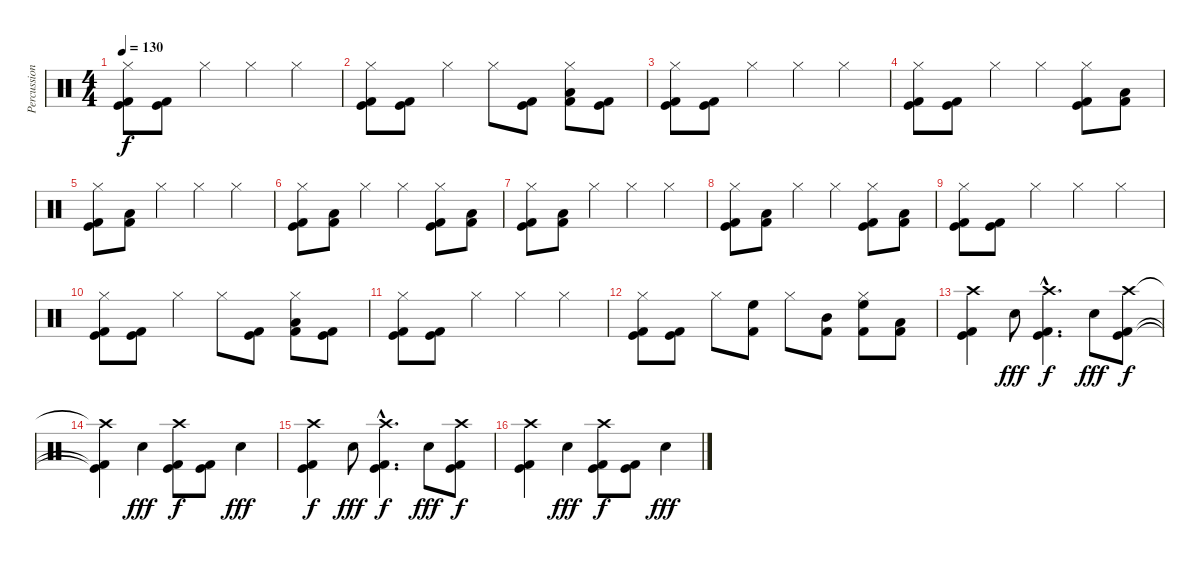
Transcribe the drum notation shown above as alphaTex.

\track ("Percussion" "Percussion") {instrument percussion}
\staff {score}
\articulation defaults
\ts (4 4)
\tempo 130
\clef neutral
\ks c
("Hi-Hat (closed)" "Kick (hit)" "Kick (hit) 2").8{dy f} ("Kick (hit) 2" "Kick (hit)").8 "Hi-Hat (closed)".4 "Hi-Hat (closed)".4 "Hi-Hat (closed)".4 |
("Hi-Hat (closed)" "Kick (hit)" "Kick (hit) 2").8 ("Kick (hit)" "Kick (hit) 2").8 "Hi-Hat (closed)".4 "Hi-Hat (closed)".8 ("Kick (hit)" "Kick (hit) 2").8 ("Hi-Hat (closed)" "Low Tom (hit)" "Kick (hit) 2").8 ("Kick (hit)" "Kick (hit) 2").8 |
("Hi-Hat (closed)" "Kick (hit)" "Kick (hit) 2").8 ("Kick (hit) 2" "Kick (hit)").8 "Hi-Hat (closed)".4 "Hi-Hat (closed)".4 "Hi-Hat (closed)".4 |
("Hi-Hat (closed)" "Kick (hit)" "Kick (hit) 2").8 ("Kick (hit)" "Kick (hit) 2").8 "Hi-Hat (closed)".4 "Hi-Hat (closed)".4 ("Hi-Hat (closed)" "Kick (hit)" "Kick (hit) 2").8 ("Low Tom (hit)" "Kick (hit) 2").8 |
("Hi-Hat (closed)" "Kick (hit)" "Kick (hit) 2").8 ("Low Tom (hit)" "Kick (hit) 2").8 "Hi-Hat (closed)".4 "Hi-Hat (closed)".4 "Hi-Hat (closed)".4 |
("Hi-Hat (closed)" "Kick (hit)" "Kick (hit) 2").8 ("Low Tom (hit)" "Kick (hit) 2").8 "Hi-Hat (closed)".4 "Hi-Hat (closed)".4 ("Hi-Hat (closed)" "Kick (hit)" "Kick (hit) 2").8 ("Low Tom (hit)" "Kick (hit) 2").8 |
("Hi-Hat (closed)" "Kick (hit)" "Kick (hit) 2").8 ("Low Tom (hit)" "Kick (hit) 2").8 "Hi-Hat (closed)".4 "Hi-Hat (closed)".4 "Hi-Hat (closed)".4 |
("Hi-Hat (closed)" "Kick (hit)" "Kick (hit) 2").8 ("Low Tom (hit)" "Kick (hit) 2").8 "Hi-Hat (closed)".4 "Hi-Hat (closed)".4 ("Hi-Hat (closed)" "Kick (hit)" "Kick (hit) 2").8 ("Low Tom (hit)" "Kick (hit) 2").8 |
("Hi-Hat (closed)" "Kick (hit)" "Kick (hit) 2").8 ("Kick (hit) 2" "Kick (hit)").8 "Hi-Hat (closed)".4 "Hi-Hat (closed)".4 "Hi-Hat (closed)".4 |
("Hi-Hat (closed)" "Kick (hit)" "Kick (hit) 2").8 ("Kick (hit)" "Kick (hit) 2").8 "Hi-Hat (closed)".4 "Hi-Hat (closed)".8 ("Kick (hit)" "Kick (hit) 2").8 ("Hi-Hat (closed)" "Low Tom (hit)" "Kick (hit) 2").8 ("Kick (hit)" "Kick (hit) 2").8 |
("Hi-Hat (closed)" "Kick (hit)" "Kick (hit) 2").8 ("Kick (hit) 2" "Kick (hit)").8 "Hi-Hat (closed)".4 "Hi-Hat (closed)".4 "Hi-Hat (closed)".4 |
("Hi-Hat (closed)" "Kick (hit)" "Kick (hit) 2").8 ("Kick (hit)" "Kick (hit) 2").8 "Hi-Hat (closed)".8 ("High Floor Tom (hit)" "Kick (hit) 2").8 "Hi-Hat (closed)".8 ("Mid Tom (hit)" "Kick (hit) 2").8 ("Hi-Hat (closed)" "High Floor Tom (hit)" "Kick (hit) 2").8 ("Low Tom (hit)" "Kick (hit) 2").8 |
("Crash high (hit)" "Kick (hit)" "Kick (hit) 2").4 "Snare (hit) 2".8{dy fff} ("Crash high (hit)"{hac} "Kick (hit)"{hac} "Kick (hit) 2"{hac}).4{d dy f} "Snare (hit) 2".8{dy fff} ("Crash high (hit)" "Kick (hit)" "Kick (hit) 2").8{dy f} |
("Crash high (hit)"{t} "Kick (hit)"{t} "Kick (hit) 2"{t}).4 "Snare (hit) 2".4{dy fff} ("Crash high (hit)" "Kick (hit)" "Kick (hit) 2").8{dy f} ("Kick (hit)" "Kick (hit) 2").8 "Snare (hit) 2".4{dy fff} |
("Crash high (hit)" "Kick (hit)" "Kick (hit) 2").4{dy f} "Snare (hit) 2".8{dy fff} ("Crash high (hit)"{hac} "Kick (hit)"{hac} "Kick (hit) 2"{hac}).4{d dy f} "Snare (hit) 2".8{dy fff} ("Crash high (hit)" "Kick (hit)" "Kick (hit) 2").8{dy f} |
("Crash high (hit)" "Kick (hit)" "Kick (hit) 2").4 "Snare (hit) 2".4{dy fff} ("Crash high (hit)" "Kick (hit)" "Kick (hit) 2").8{dy f} ("Kick (hit)" "Kick (hit) 2").8 "Snare (hit) 2".4{dy fff}
